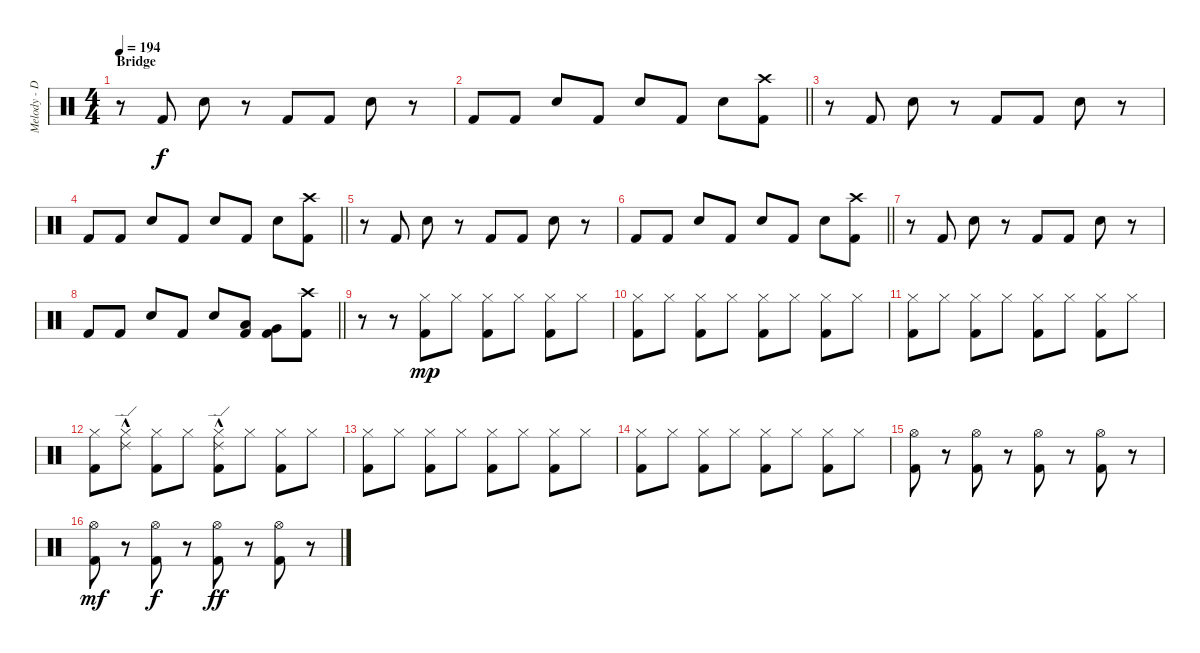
\track ("Melody - Drums" "Melody - D") {instrument percussion}
\staff {score}
\articulation defaults
\ts (4 4)
\section ("" "Bridge")
\tempo 194
\clef neutral
\ks c
r.8{dy ff} "Kick (hit) 2".8{dy f} "Electric Snare (hit)".8 r.8 "Kick (hit) 2".8 "Kick (hit) 2".8 "Electric Snare (hit)".8 r.8 |
\barLineRight lightlight "Kick (hit) 2".8 "Kick (hit) 2".8 "Electric Snare (hit)".8 "Kick (hit) 2".8 "Electric Snare (hit)".8 "Kick (hit) 2".8 "Electric Snare (hit)".8
("Crash high (hit)" "Kick (hit) 2").8 |
r.8 "Kick (hit) 2".8 "Electric Snare (hit)".8 r.8 "Kick (hit) 2".8 "Kick (hit) 2".8 "Electric Snare (hit)".8 r.8 |
\barLineRight lightlight "Kick (hit) 2".8 "Kick (hit) 2".8 "Electric Snare (hit)".8 "Kick (hit) 2".8 "Electric Snare (hit)".8 "Kick (hit) 2".8 "Electric Snare (hit)".8
("Crash high (hit)" "Kick (hit) 2").8 |
r.8 "Kick (hit) 2".8 "Electric Snare (hit)".8 r.8 "Kick (hit) 2".8 "Kick (hit) 2".8 "Electric Snare (hit)".8 r.8 |
\barLineRight lightlight "Kick (hit) 2".8 "Kick (hit) 2".8 "Electric Snare (hit)".8 "Kick (hit) 2".8 "Electric Snare (hit)".8 "Kick (hit) 2".8 "Electric Snare (hit)".8
("Crash high (hit)" "Kick (hit) 2").8 |
r.8 "Kick (hit) 2".8 "Electric Snare (hit)".8 r.8 "Kick (hit) 2".8 "Kick (hit) 2".8 "Electric Snare (hit)".8 r.8 |
\barLineRight lightlight "Kick (hit) 2".8 "Kick (hit) 2".8 "Electric Snare (hit)".8 "Kick (hit) 2".8 "Electric Snare (hit)".8
("Low Tom (hit)" "Kick (hit) 2").8 ("Very Low Tom (hit)" "Kick (hit) 2").8 ("Crash high (hit)" "Kick (hit) 2").8 |
r.8 r.8 ("Hi-Hat (closed)" "Kick (hit) 2").8{dy mp} "Hi-Hat (closed)".8 ("Hi-Hat (closed)" "Kick (hit) 2").8 "Hi-Hat (closed)".8 ("Hi-Hat (closed)" "Kick (hit) 2").8 "Hi-Hat (closed)".8 |
("Hi-Hat (closed)" "Kick (hit) 2").8 "Hi-Hat (closed)".8 ("Hi-Hat (closed)" "Kick (hit) 2").8 "Hi-Hat (closed)".8 ("Hi-Hat (closed)" "Kick (hit) 2").8 "Hi-Hat (closed)".8 ("Hi-Hat (closed)" "Kick (hit) 2").8 "Hi-Hat (closed)".8 |
("Hi-Hat (closed)" "Kick (hit) 2").8 "Hi-Hat (closed)".8 ("Hi-Hat (closed)" "Kick (hit) 2").8 "Hi-Hat (closed)".8 ("Hi-Hat (closed)" "Kick (hit) 2").8 "Hi-Hat (closed)".8 ("Hi-Hat (closed)" "Kick (hit) 2").8 "Hi-Hat (closed)".8 |
("Hi-Hat (closed)" "Kick (hit) 2").8 ("Ride (edge) 2"{hac} "Hi-Hat (closed)").8 ("Hi-Hat (closed)" "Kick (hit) 2").8 "Hi-Hat (closed)".8 ("Ride (edge) 2"{hac} "Hi-Hat (closed)" "Kick (hit) 2").8 "Hi-Hat (closed)".8 ("Hi-Hat (closed)" "Kick (hit) 2").8 "Hi-Hat (closed)".8 |
("Hi-Hat (closed)" "Kick (hit) 2").8 "Hi-Hat (closed)".8 ("Hi-Hat (closed)" "Kick (hit) 2").8 "Hi-Hat (closed)".8 ("Hi-Hat (closed)" "Kick (hit) 2").8 "Hi-Hat (closed)".8 ("Hi-Hat (closed)" "Kick (hit) 2").8 "Hi-Hat (closed)".8 |
("Hi-Hat (closed)" "Kick (hit) 2").8 "Hi-Hat (closed)".8 ("Hi-Hat (closed)" "Kick (hit) 2").8 "Hi-Hat (closed)".8 ("Hi-Hat (closed)" "Kick (hit) 2").8 "Hi-Hat (closed)".8 ("Hi-Hat (closed)" "Kick (hit) 2").8 "Hi-Hat (closed)".8 |
("Hi-Hat (open)" "Kick (hit) 2").8 r.8 ("Hi-Hat (open)" "Kick (hit) 2").8 r.8 ("Hi-Hat (open)" "Kick (hit) 2").8 r.8 ("Hi-Hat (open)" "Kick (hit) 2").8 r.8 |
("Hi-Hat (open)" "Kick (hit) 2").8{dy mf} r.8 ("Hi-Hat (open)" "Kick (hit) 2").8{dy f} r.8 ("Hi-Hat (open)" "Kick (hit) 2").8{dy ff} r.8 ("Hi-Hat (open)" "Kick (hit) 2").8 r.8
